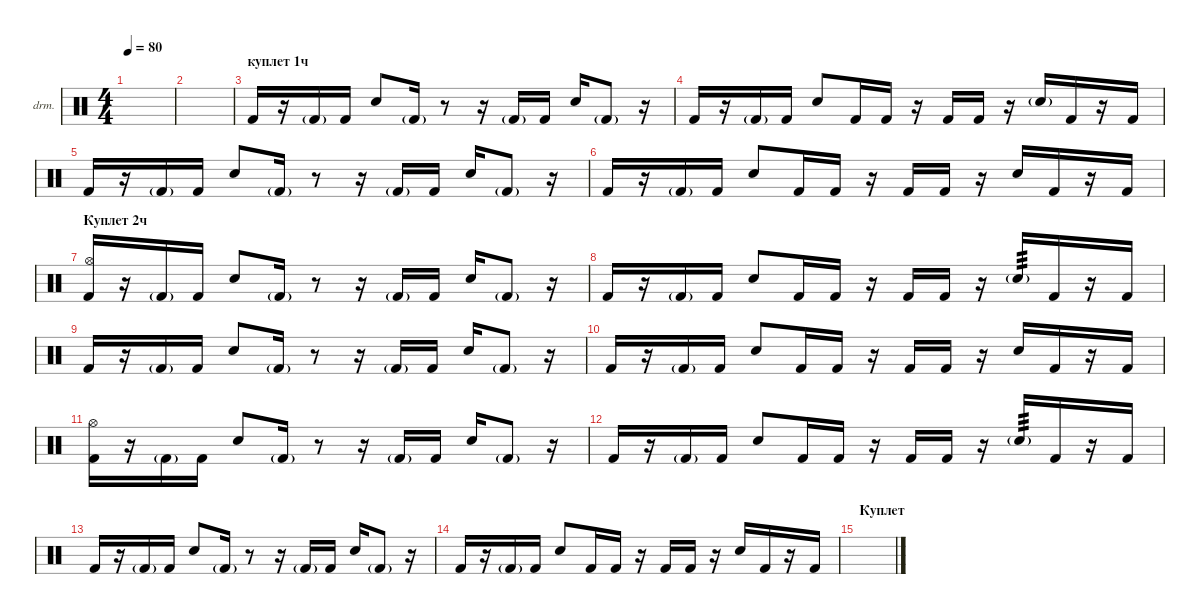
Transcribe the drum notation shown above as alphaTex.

\defaultSystemsLayout 4
\hideDynamics
\bracketExtendMode nobrackets
\firstSystemTrackNameOrientation horizontal
\otherSystemsTrackNameOrientation horizontal
\track ("Drumkit" "drm.") {instrument percussion}
\staff {score}
\articulation defaults
\ts (4 4)
\tempo 80
\clef neutral
\ks c
|
|
\section ("" "куплет 1ч")
"Kick (hit) 2".16{beam Up} r.16{beam Up} "Kick (hit) 2"{g}.16{beam Up} "Kick (hit) 2".16{beam Up} "Snare (hit) 2".8{beam Up} "Kick (hit) 2"{g}.16{beam Up} r.8{beam Up} r.16{beam Up} "Kick (hit) 2"{g}.16{beam Up} "Kick (hit) 2".16{beam Up} "Snare (hit) 2".16{beam Up} "Kick (hit) 2"{g}.8{beam Up} r.16{beam Up} |
"Kick (hit) 2".16{beam Up} r.16{beam Up} "Kick (hit) 2"{g}.16{beam Up} "Kick (hit) 2".16{beam Up} "Snare (hit) 2".8{beam Up} "Kick (hit) 2".16{beam Up} "Kick (hit) 2".16{beam Up} r.16{beam Up} "Kick (hit) 2".16{beam Up} "Kick (hit) 2".16{beam Up} r.16{beam Up} "Snare (hit) 2"{g}.16{beam Up} "Kick (hit) 2".16{beam Up} r.16{beam Up} "Kick (hit) 2".16{beam Up} |
"Kick (hit) 2".16{beam Up} r.16{beam Up} "Kick (hit) 2"{g}.16{beam Up} "Kick (hit) 2".16{beam Up} "Snare (hit) 2".8{beam Up} "Kick (hit) 2"{g}.16{beam Up} r.8{beam Up} r.16{beam Up} "Kick (hit) 2"{g}.16{beam Up} "Kick (hit) 2".16{beam Up} "Snare (hit) 2".16{beam Up} "Kick (hit) 2"{g}.8{beam Up} r.16{beam Up} |
"Kick (hit) 2".16{beam Up} r.16{beam Up} "Kick (hit) 2"{g}.16{beam Up} "Kick (hit) 2".16{beam Up} "Snare (hit) 2".8{beam Up} "Kick (hit) 2".16{beam Up} "Kick (hit) 2".16{beam Up} r.16{beam Up} "Kick (hit) 2".16{beam Up} "Kick (hit) 2".16{beam Up} r.16{beam Up} "Snare (hit) 2".16{beam Up} "Kick (hit) 2".16{beam Up} r.16{beam Up} "Kick (hit) 2".16{beam Up} |
\section ("" "Куплет 2ч")
("Kick (hit) 2" "Hi-Hat (open)").16{beam Up} r.16{beam Up} "Kick (hit) 2"{g}.16{beam Up} "Kick (hit) 2".16{beam Up} "Snare (hit) 2".8{beam Up} "Kick (hit) 2"{g}.16{beam Up} r.8{beam Up} r.16{beam Up} "Kick (hit) 2"{g}.16{beam Up} "Kick (hit) 2".16{beam Up} "Snare (hit) 2".16{beam Up} "Kick (hit) 2"{g}.8{beam Up} r.16{beam Up} |
"Kick (hit) 2".16{beam Up} r.16{beam Up} "Kick (hit) 2"{g}.16{beam Up} "Kick (hit) 2".16{beam Up} "Snare (hit) 2".8{beam Up} "Kick (hit) 2".16{beam Up} "Kick (hit) 2".16{beam Up} r.16{beam Up} "Kick (hit) 2".16{beam Up} "Kick (hit) 2".16{beam Up} r.16{beam Up} "Snare (hit) 2"{g}.16{tp 3 beam Up} "Kick (hit) 2".16{beam Up} r.16{beam Up} "Kick (hit) 2".16{beam Up} |
"Kick (hit) 2".16{beam Up} r.16{beam Up} "Kick (hit) 2"{g}.16{beam Up} "Kick (hit) 2".16{beam Up} "Snare (hit) 2".8{beam Up} "Kick (hit) 2"{g}.16{beam Up} r.8{beam Up} r.16{beam Up} "Kick (hit) 2"{g}.16{beam Up} "Kick (hit) 2".16{beam Up} "Snare (hit) 2".16{beam Up} "Kick (hit) 2"{g}.8{beam Up} r.16{beam Up} |
"Kick (hit) 2".16{beam Up} r.16{beam Up} "Kick (hit) 2"{g}.16{beam Up} "Kick (hit) 2".16{beam Up} "Snare (hit) 2".8{beam Up} "Kick (hit) 2".16{beam Up} "Kick (hit) 2".16{beam Up} r.16{beam Up} "Kick (hit) 2".16{beam Up} "Kick (hit) 2".16{beam Up} r.16{beam Up} "Snare (hit) 2".16{beam Up} "Kick (hit) 2".16{beam Up} r.16{beam Up} "Kick (hit) 2".16{beam Up} |
("Kick (hit) 2" "Hi-Hat (open)").16{beam Down} r.16{beam Down} "Kick (hit) 2"{g}.16{beam Down} "Kick (hit) 2".16{beam Down} "Snare (hit) 2".8{beam Up} "Kick (hit) 2"{g}.16{beam Up} r.8{beam Up} r.16{beam Up} "Kick (hit) 2"{g}.16{beam Up} "Kick (hit) 2".16{beam Up} "Snare (hit) 2".16{beam Up} "Kick (hit) 2"{g}.8{beam Up} r.16{beam Up} |
"Kick (hit) 2".16{beam Up} r.16{beam Up} "Kick (hit) 2"{g}.16{beam Up} "Kick (hit) 2".16{beam Up} "Snare (hit) 2".8{beam Up} "Kick (hit) 2".16{beam Up} "Kick (hit) 2".16{beam Up} r.16{beam Up} "Kick (hit) 2".16{beam Up} "Kick (hit) 2".16{beam Up} r.16{beam Up} "Snare (hit) 2"{g}.16{tp 3 beam Up} "Kick (hit) 2".16{beam Up} r.16{beam Up} "Kick (hit) 2".16{beam Up} |
"Kick (hit) 2".16{beam Up} r.16{beam Up} "Kick (hit) 2"{g}.16{beam Up} "Kick (hit) 2".16{beam Up} "Snare (hit) 2".8{beam Up} "Kick (hit) 2"{g}.16{beam Up} r.8{beam Up} r.16{beam Up} "Kick (hit) 2"{g}.16{beam Up} "Kick (hit) 2".16{beam Up} "Snare (hit) 2".16{beam Up} "Kick (hit) 2"{g}.8{beam Up} r.16{beam Up} |
"Kick (hit) 2".16{beam Up} r.16{beam Up} "Kick (hit) 2"{g}.16{beam Up} "Kick (hit) 2".16{beam Up} "Snare (hit) 2".8{beam Up} "Kick (hit) 2".16{beam Up} "Kick (hit) 2".16{beam Up} r.16{beam Up} "Kick (hit) 2".16{beam Up} "Kick (hit) 2".16{beam Up} r.16{beam Up} "Snare (hit) 2".16{beam Up} "Kick (hit) 2".16{beam Up} r.16{beam Up} "Kick (hit) 2".16{beam Up} |
\section ("" "Куплет")
